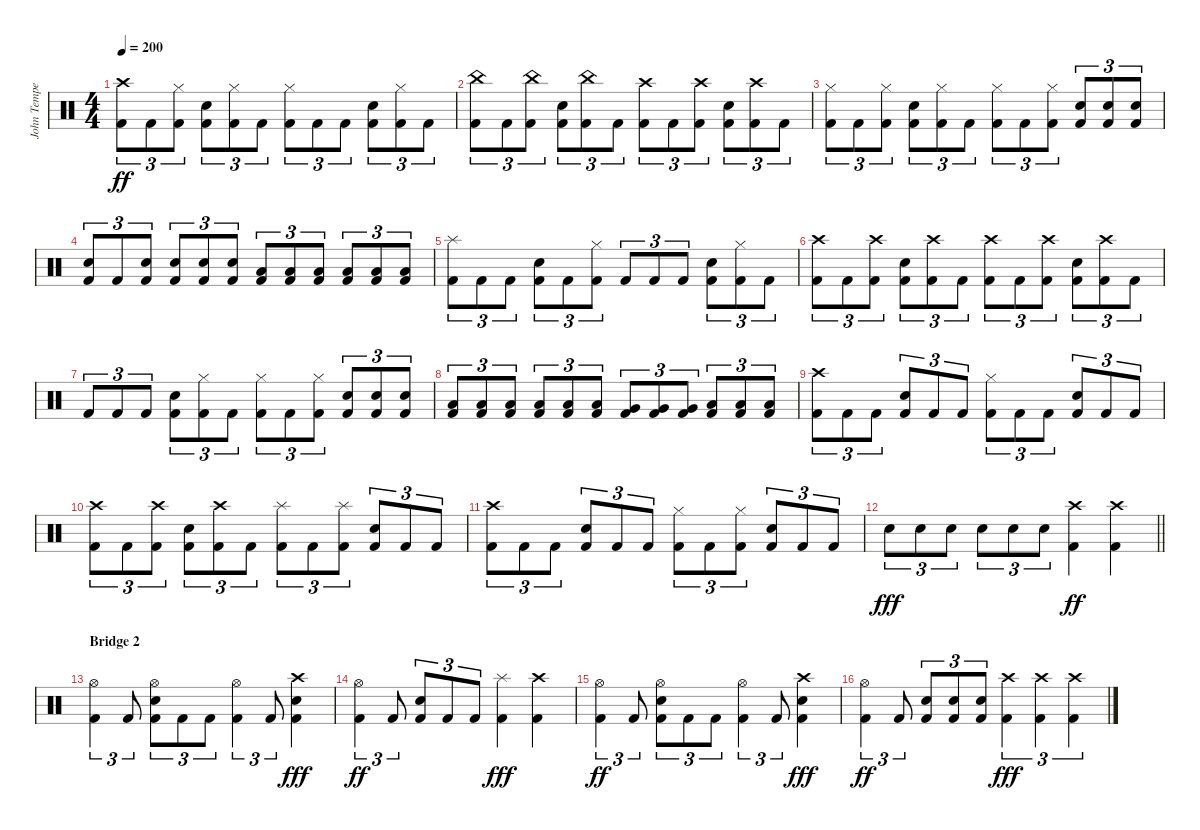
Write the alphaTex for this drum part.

\track ("John Tempesta" "John Tempe") {instrument percussion}
\staff {score}
\articulation defaults
\ts (4 4)
\tempo 200
\clef neutral
\ks c
("Crash high (hit)" "Kick (hit) 2").8{tu (3 2) dy ff} "Kick (hit) 2".8{tu (3 2)} ("Hi-Hat (closed)" "Kick (hit) 2").8{tu (3 2)} ("Electric Snare (hit)" "Kick (hit) 2").8{tu (3 2)} ("Hi-Hat (closed)" "Kick (hit) 2").8{tu (3 2)} "Kick (hit) 2".8{tu (3 2)} ("Hi-Hat (closed)" "Kick (hit) 2").8{tu (3 2)} "Kick (hit) 2".8{tu (3 2)} "Kick (hit) 2".8{tu (3 2)} ("Electric Snare (hit)" "Kick (hit) 2").8{tu (3 2)} ("Hi-Hat (closed)" "Kick (hit) 2").8{tu (3 2)} "Kick (hit) 2".8{tu (3 2)} |
("China (hit)" "Kick (hit) 2").8{tu (3 2)} "Kick (hit) 2".8{tu (3 2)} ("China (hit)" "Kick (hit) 2").8{tu (3 2)} ("Electric Snare (hit)" "Kick (hit) 2").8{tu (3 2)} ("China (hit)" "Kick (hit) 2").8{tu (3 2)} "Kick (hit) 2".8{tu (3 2)} ("Crash high (hit)" "Kick (hit) 2").8{tu (3 2)} "Kick (hit) 2".8{tu (3 2)} ("Crash high (hit)" "Kick (hit) 2").8{tu (3 2)} ("Electric Snare (hit)" "Kick (hit) 2").8{tu (3 2)} ("Crash high (hit)" "Kick (hit) 2").8{tu (3 2)} "Kick (hit) 2".8{tu (3 2)} |
("Hi-Hat (closed)" "Kick (hit) 2").8{tu (3 2)} "Kick (hit) 2".8{tu (3 2)} ("Hi-Hat (closed)" "Kick (hit) 2").8{tu (3 2)} ("Electric Snare (hit)" "Kick (hit) 2").8{tu (3 2)} ("Hi-Hat (closed)" "Kick (hit) 2").8{tu (3 2)} "Kick (hit) 2".8{tu (3 2)} ("Hi-Hat (closed)" "Kick (hit) 2").8{tu (3 2)} "Kick (hit) 2".8{tu (3 2)} ("Hi-Hat (closed)" "Kick (hit) 2").8{tu (3 2)} ("Electric Snare (hit)" "Kick (hit) 2").8{tu (3 2)} ("Electric Snare (hit)" "Kick (hit) 2").8{tu (3 2)} ("Electric Snare (hit)" "Kick (hit) 2").8{tu (3 2)} |
("Electric Snare (hit)" "Kick (hit) 2").8{tu (3 2)} "Kick (hit) 2".8{tu (3 2)} ("Electric Snare (hit)" "Kick (hit) 2").8{tu (3 2)} ("Electric Snare (hit)" "Kick (hit) 2").8{tu (3 2)} ("Electric Snare (hit)" "Kick (hit) 2").8{tu (3 2)} ("Electric Snare (hit)" "Kick (hit) 2").8{tu (3 2)} ("Low Tom (hit)" "Kick (hit) 2").8{tu (3 2)} ("Low Tom (hit)" "Kick (hit) 2").8{tu (3 2)} ("Low Tom (hit)" "Kick (hit) 2").8{tu (3 2)} ("Low Tom (hit)" "Kick (hit) 2").8{tu (3 2)} ("Low Tom (hit)" "Kick (hit) 2").8{tu (3 2)} ("Low Tom (hit)" "Kick (hit) 2").8{tu (3 2)} |
("Splash (hit)" "Kick (hit) 2").8{tu (3 2)} "Kick (hit) 2".8{tu (3 2)} "Kick (hit) 2".8{tu (3 2)} ("Electric Snare (hit)" "Kick (hit) 2").8{tu (3 2)} "Kick (hit) 2".8{tu (3 2)} ("Hi-Hat (closed)" "Kick (hit) 2").8{tu (3 2)} "Kick (hit) 2".8{tu (3 2)} "Kick (hit) 2".8{tu (3 2)} "Kick (hit) 2".8{tu (3 2)} ("Electric Snare (hit)" "Kick (hit) 2").8{tu (3 2)} ("Hi-Hat (closed)" "Kick (hit) 2").8{tu (3 2)} "Kick (hit) 2".8{tu (3 2)} |
("Crash high (hit)" "Kick (hit) 2").8{tu (3 2)} "Kick (hit) 2".8{tu (3 2)} ("Crash high (hit)" "Kick (hit) 2").8{tu (3 2)} ("Electric Snare (hit)" "Kick (hit) 2").8{tu (3 2)} ("Crash high (hit)" "Kick (hit) 2").8{tu (3 2)} "Kick (hit) 2".8{tu (3 2)} ("Crash high (hit)" "Kick (hit) 2").8{tu (3 2)} "Kick (hit) 2".8{tu (3 2)} ("Crash high (hit)" "Kick (hit) 2").8{tu (3 2)} ("Electric Snare (hit)" "Kick (hit) 2").8{tu (3 2)} ("Crash high (hit)" "Kick (hit) 2").8{tu (3 2)} "Kick (hit) 2".8{tu (3 2)} |
"Kick (hit) 2".8{tu (3 2)} "Kick (hit) 2".8{tu (3 2)} "Kick (hit) 2".8{tu (3 2)} ("Electric Snare (hit)" "Kick (hit) 2").8{tu (3 2)} ("Hi-Hat (closed)" "Kick (hit) 2").8{tu (3 2)} "Kick (hit) 2".8{tu (3 2)} ("Hi-Hat (closed)" "Kick (hit) 2").8{tu (3 2)} "Kick (hit) 2".8{tu (3 2)} ("Hi-Hat (closed)" "Kick (hit) 2").8{tu (3 2)} ("Electric Snare (hit)" "Kick (hit) 2").8{tu (3 2)} ("Electric Snare (hit)" "Kick (hit) 2").8{tu (3 2)} ("Electric Snare (hit)" "Kick (hit) 2").8{tu (3 2)} |
("Low Tom (hit)" "Kick (hit) 2").8{tu (3 2)} ("Low Tom (hit)" "Kick (hit) 2").8{tu (3 2)} ("Low Tom (hit)" "Kick (hit) 2").8{tu (3 2)} ("Low Tom (hit)" "Kick (hit) 2").8{tu (3 2)} ("Low Tom (hit)" "Kick (hit) 2").8{tu (3 2)} ("Low Tom (hit)" "Kick (hit) 2").8{tu (3 2)} ("Very Low Tom (hit)" "Kick (hit) 2").8{tu (3 2)} ("Very Low Tom (hit)" "Kick (hit) 2").8{tu (3 2)} ("Very Low Tom (hit)" "Kick (hit) 2").8{tu (3 2)} ("Low Floor Tom (hit)" "Kick (hit) 2").8{tu (3 2)} ("Low Floor Tom (hit)" "Kick (hit) 2").8{tu (3 2)} ("Low Floor Tom (hit)" "Kick (hit) 2").8{tu (3 2)} |
("Crash high (hit)" "Kick (hit) 2").8{tu (3 2)} "Kick (hit) 2".8{tu (3 2)} "Kick (hit) 2".8{tu (3 2)} ("Electric Snare (hit)" "Kick (hit) 2").8{tu (3 2)} "Kick (hit) 2".8{tu (3 2)} "Kick (hit) 2".8{tu (3 2)} ("Hi-Hat (closed)" "Kick (hit) 2").8{tu (3 2)} "Kick (hit) 2".8{tu (3 2)} "Kick (hit) 2".8{tu (3 2)} ("Electric Snare (hit)" "Kick (hit) 2").8{tu (3 2)} "Kick (hit) 2".8{tu (3 2)} "Kick (hit) 2".8{tu (3 2)} |
("Crash high (hit)" "Kick (hit) 2").8{tu (3 2)} "Kick (hit) 2".8{tu (3 2)} ("Crash high (hit)" "Kick (hit) 2").8{tu (3 2)} ("Electric Snare (hit)" "Kick (hit) 2").8{tu (3 2)} ("Crash high (hit)" "Kick (hit) 2").8{tu (3 2)} "Kick (hit) 2".8{tu (3 2)} ("Splash (hit)" "Kick (hit) 2").8{tu (3 2)} "Kick (hit) 2".8{tu (3 2)} ("Splash (hit)" "Kick (hit) 2").8{tu (3 2)} ("Electric Snare (hit)" "Kick (hit) 2").8{tu (3 2)} "Kick (hit) 2".8{tu (3 2)} "Kick (hit) 2".8{tu (3 2)} |
("Crash high (hit)" "Kick (hit) 2").8{tu (3 2)} "Kick (hit) 2".8{tu (3 2)} "Kick (hit) 2".8{tu (3 2)} ("Electric Snare (hit)" "Kick (hit) 2").8{tu (3 2)} "Kick (hit) 2".8{tu (3 2)} "Kick (hit) 2".8{tu (3 2)} ("Hi-Hat (closed)" "Kick (hit) 2").8{tu (3 2)} "Kick (hit) 2".8{tu (3 2)} ("Hi-Hat (closed)" "Kick (hit) 2").8{tu (3 2)} ("Electric Snare (hit)" "Kick (hit) 2").8{tu (3 2)} "Kick (hit) 2".8{tu (3 2)} "Kick (hit) 2".8{tu (3 2)} |
\barLineRight lightlight "Electric Snare (hit)".8{tu (3 2) dy fff} "Electric Snare (hit)".8{tu (3 2)} "Electric Snare (hit)".8{tu (3 2)} "Electric Snare (hit)".8{tu (3 2)} "Electric Snare (hit)".8{tu (3 2)} "Electric Snare (hit)".8{tu (3 2)}
("Crash high (hit)" "Kick (hit) 2").4{dy ff} ("Crash high (hit)" "Kick (hit) 2").4 |
\section ("" "Bridge 2")
("Hi-Hat (open)" "Kick (hit) 2").4{tu (3 2)} "Kick (hit) 2".8{tu (3 2)} ("Electric Snare (hit)" "Hi-Hat (open)" "Kick (hit) 2").8{tu (3 2)} "Kick (hit) 2".8{tu (3 2)} "Kick (hit) 2".8{tu (3 2)} ("Hi-Hat (open)" "Kick (hit) 2").4{tu (3 2)} "Kick (hit) 2".8{tu (3 2)} ("Electric Snare (hit)" "Crash high (hit)" "Kick (hit) 2").4{dy fff} |
("Hi-Hat (open)" "Kick (hit) 2").4{tu (3 2) dy ff} "Kick (hit) 2".8{tu (3 2)} ("Electric Snare (hit)" "Kick (hit) 2").8{tu (3 2)} "Kick (hit) 2".8{tu (3 2)} "Kick (hit) 2".8{tu (3 2)} ("Splash (hit)" "Kick (hit) 2").4{dy fff} ("Crash high (hit)" "Kick (hit) 2").4 |
("Hi-Hat (open)" "Kick (hit) 2").4{tu (3 2) dy ff} "Kick (hit) 2".8{tu (3 2)} ("Electric Snare (hit)" "Hi-Hat (open)" "Kick (hit) 2").8{tu (3 2)} "Kick (hit) 2".8{tu (3 2)} "Kick (hit) 2".8{tu (3 2)} ("Hi-Hat (open)" "Kick (hit) 2").4{tu (3 2)} "Kick (hit) 2".8{tu (3 2)} ("Electric Snare (hit)" "Crash high (hit)" "Kick (hit) 2").4{dy fff} |
("Hi-Hat (open)" "Kick (hit) 2").4{tu (3 2) dy ff} "Kick (hit) 2".8{tu (3 2)} ("Electric Snare (hit)" "Kick (hit) 2").8{tu (3 2)} ("Electric Snare (hit)" "Kick (hit) 2").8{tu (3 2)} ("Electric Snare (hit)" "Kick (hit) 2").8{tu (3 2)} ("Crash high (hit)" "Kick (hit) 2").4{tu (3 2) dy fff} ("Crash high (hit)" "Kick (hit) 2").4{tu (3 2)} ("Crash high (hit)" "Kick (hit) 2").4{tu (3 2)}
